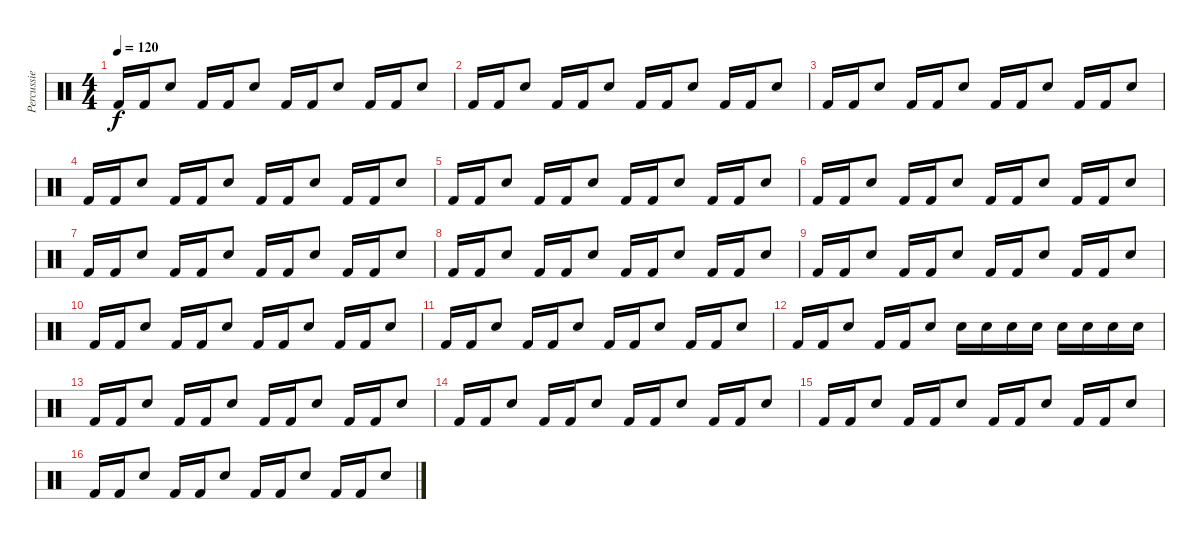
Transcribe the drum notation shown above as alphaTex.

\track ("Percussie" "Percussie") {instrument percussion}
\staff {score}
\articulation defaults
\ts (4 4)
\tempo 120
\clef neutral
\ks c "Kick (hit) 2".16{dy f} "Kick (hit) 2".16 "Electric Snare (hit)".8 "Kick (hit) 2".16 "Kick (hit) 2".16 "Electric Snare (hit)".8 "Kick (hit) 2".16 "Kick (hit) 2".16 "Electric Snare (hit)".8 "Kick (hit) 2".16 "Kick (hit) 2".16 "Electric Snare (hit)".8
|
"Kick (hit) 2".16 "Kick (hit) 2".16 "Electric Snare (hit)".8 "Kick (hit) 2".16 "Kick (hit) 2".16 "Electric Snare (hit)".8 "Kick (hit) 2".16 "Kick (hit) 2".16 "Electric Snare (hit)".8 "Kick (hit) 2".16 "Kick (hit) 2".16 "Electric Snare (hit)".8 |
"Kick (hit) 2".16 "Kick (hit) 2".16 "Electric Snare (hit)".8 "Kick (hit) 2".16 "Kick (hit) 2".16 "Electric Snare (hit)".8 "Kick (hit) 2".16 "Kick (hit) 2".16 "Electric Snare (hit)".8 "Kick (hit) 2".16 "Kick (hit) 2".16 "Electric Snare (hit)".8 |
"Kick (hit) 2".16 "Kick (hit) 2".16 "Electric Snare (hit)".8 "Kick (hit) 2".16 "Kick (hit) 2".16 "Electric Snare (hit)".8 "Kick (hit) 2".16 "Kick (hit) 2".16 "Electric Snare (hit)".8 "Kick (hit) 2".16 "Kick (hit) 2".16 "Electric Snare (hit)".8 |
"Kick (hit) 2".16 "Kick (hit) 2".16 "Electric Snare (hit)".8 "Kick (hit) 2".16 "Kick (hit) 2".16 "Electric Snare (hit)".8 "Kick (hit) 2".16 "Kick (hit) 2".16 "Electric Snare (hit)".8 "Kick (hit) 2".16 "Kick (hit) 2".16 "Electric Snare (hit)".8 |
"Kick (hit) 2".16 "Kick (hit) 2".16 "Electric Snare (hit)".8 "Kick (hit) 2".16 "Kick (hit) 2".16 "Electric Snare (hit)".8 "Kick (hit) 2".16 "Kick (hit) 2".16 "Electric Snare (hit)".8 "Kick (hit) 2".16 "Kick (hit) 2".16 "Electric Snare (hit)".8 |
"Kick (hit) 2".16 "Kick (hit) 2".16 "Electric Snare (hit)".8 "Kick (hit) 2".16 "Kick (hit) 2".16 "Electric Snare (hit)".8 "Kick (hit) 2".16 "Kick (hit) 2".16 "Electric Snare (hit)".8 "Kick (hit) 2".16 "Kick (hit) 2".16 "Electric Snare (hit)".8 |
"Kick (hit) 2".16 "Kick (hit) 2".16 "Electric Snare (hit)".8 "Kick (hit) 2".16 "Kick (hit) 2".16 "Electric Snare (hit)".8 "Kick (hit) 2".16 "Kick (hit) 2".16 "Electric Snare (hit)".8 "Kick (hit) 2".16 "Kick (hit) 2".16 "Electric Snare (hit)".8 |
"Kick (hit) 2".16 "Kick (hit) 2".16 "Electric Snare (hit)".8 "Kick (hit) 2".16 "Kick (hit) 2".16 "Electric Snare (hit)".8 "Kick (hit) 2".16 "Kick (hit) 2".16 "Electric Snare (hit)".8 "Kick (hit) 2".16 "Kick (hit) 2".16 "Electric Snare (hit)".8 |
"Kick (hit) 2".16 "Kick (hit) 2".16 "Electric Snare (hit)".8 "Kick (hit) 2".16 "Kick (hit) 2".16 "Electric Snare (hit)".8 "Kick (hit) 2".16 "Kick (hit) 2".16 "Electric Snare (hit)".8 "Kick (hit) 2".16 "Kick (hit) 2".16 "Electric Snare (hit)".8 |
"Kick (hit) 2".16 "Kick (hit) 2".16 "Electric Snare (hit)".8 "Kick (hit) 2".16 "Kick (hit) 2".16 "Electric Snare (hit)".8 "Kick (hit) 2".16 "Kick (hit) 2".16 "Electric Snare (hit)".8 "Kick (hit) 2".16 "Kick (hit) 2".16 "Electric Snare (hit)".8 |
"Kick (hit) 2".16 "Kick (hit) 2".16 "Electric Snare (hit)".8 "Kick (hit) 2".16 "Kick (hit) 2".16 "Electric Snare (hit)".8 "Electric Snare (hit)".16 "Electric Snare (hit)".16 "Electric Snare (hit)".16 "Electric Snare (hit)".16 "Electric Snare (hit)".16 "Electric Snare (hit)".16 "Electric Snare (hit)".16 "Electric Snare (hit)".16 |
"Kick (hit) 2".16 "Kick (hit) 2".16 "Electric Snare (hit)".8 "Kick (hit) 2".16 "Kick (hit) 2".16 "Electric Snare (hit)".8 "Kick (hit) 2".16 "Kick (hit) 2".16 "Electric Snare (hit)".8 "Kick (hit) 2".16 "Kick (hit) 2".16 "Electric Snare (hit)".8 |
"Kick (hit) 2".16 "Kick (hit) 2".16 "Electric Snare (hit)".8 "Kick (hit) 2".16 "Kick (hit) 2".16 "Electric Snare (hit)".8 "Kick (hit) 2".16 "Kick (hit) 2".16 "Electric Snare (hit)".8 "Kick (hit) 2".16 "Kick (hit) 2".16 "Electric Snare (hit)".8 |
"Kick (hit) 2".16 "Kick (hit) 2".16 "Electric Snare (hit)".8 "Kick (hit) 2".16 "Kick (hit) 2".16 "Electric Snare (hit)".8 "Kick (hit) 2".16 "Kick (hit) 2".16 "Electric Snare (hit)".8 "Kick (hit) 2".16 "Kick (hit) 2".16 "Electric Snare (hit)".8 |
"Kick (hit) 2".16 "Kick (hit) 2".16 "Electric Snare (hit)".8 "Kick (hit) 2".16 "Kick (hit) 2".16 "Electric Snare (hit)".8 "Kick (hit) 2".16 "Kick (hit) 2".16 "Electric Snare (hit)".8 "Kick (hit) 2".16 "Kick (hit) 2".16 "Electric Snare (hit)".8
